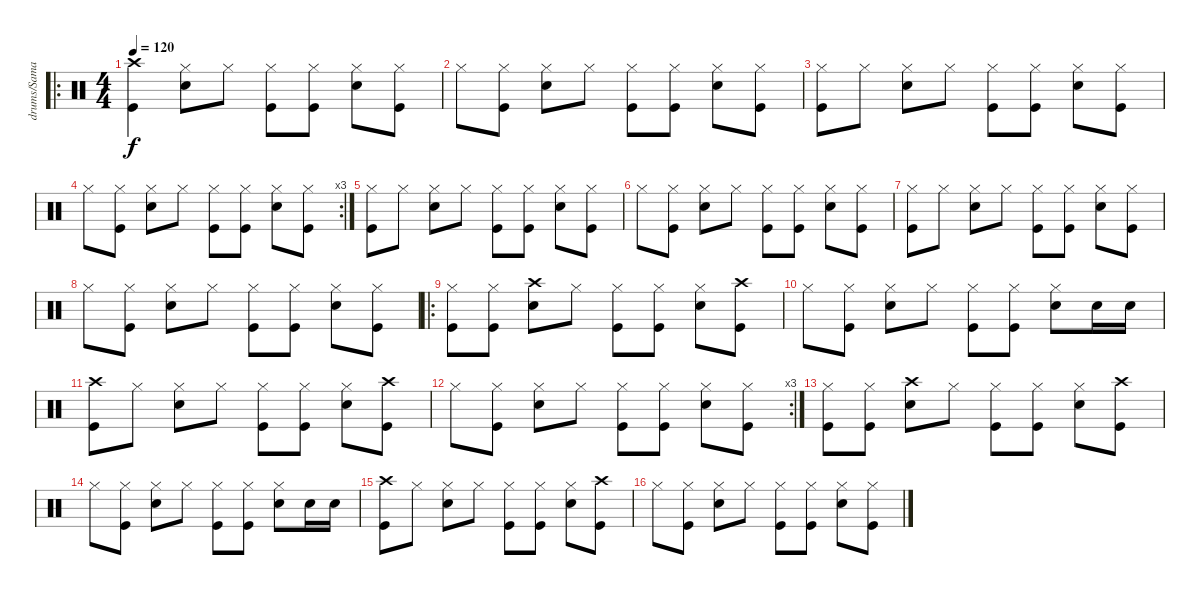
\track ("drums/Samantha" "drums/Sama") {instrument percussion}
\staff {score}
\articulation defaults
\ro
\ts (4 4)
\tempo 120
\clef neutral
\ks c
("Crash high (hit)" "Kick (hit)").4{dy f} ("Hi-Hat (closed)" "Snare (hit) 2").8 "Hi-Hat (closed)".8 ("Hi-Hat (closed)" "Kick (hit)").8 ("Hi-Hat (closed)" "Kick (hit)").8 ("Hi-Hat (closed)" "Snare (hit) 2").8 ("Hi-Hat (closed)" "Kick (hit)").8 |
"Hi-Hat (closed)".8 ("Hi-Hat (closed)" "Kick (hit)").8 ("Hi-Hat (closed)" "Snare (hit) 2").8 "Hi-Hat (closed)".8 ("Hi-Hat (closed)" "Kick (hit)").8 ("Hi-Hat (closed)" "Kick (hit)").8 ("Hi-Hat (closed)" "Snare (hit) 2").8 ("Hi-Hat (closed)" "Kick (hit)").8 |
("Hi-Hat (closed)" "Kick (hit)").8 "Hi-Hat (closed)".8 ("Hi-Hat (closed)" "Snare (hit) 2").8 "Hi-Hat (closed)".8 ("Hi-Hat (closed)" "Kick (hit)").8 ("Hi-Hat (closed)" "Kick (hit)").8 ("Hi-Hat (closed)" "Snare (hit) 2").8 ("Hi-Hat (closed)" "Kick (hit)").8 |
\rc 3 "Hi-Hat (closed)".8
("Hi-Hat (closed)" "Kick (hit)").8 ("Hi-Hat (closed)" "Snare (hit) 2").8 "Hi-Hat (closed)".8 ("Hi-Hat (closed)" "Kick (hit)").8 ("Hi-Hat (closed)" "Kick (hit)").8 ("Hi-Hat (closed)" "Snare (hit) 2").8 ("Hi-Hat (closed)" "Kick (hit)").8 |
("Hi-Hat (closed)" "Kick (hit)").8 "Hi-Hat (closed)".8 ("Hi-Hat (closed)" "Snare (hit) 2").8 "Hi-Hat (closed)".8 ("Hi-Hat (closed)" "Kick (hit)").8 ("Hi-Hat (closed)" "Kick (hit)").8 ("Hi-Hat (closed)" "Snare (hit) 2").8 ("Hi-Hat (closed)" "Kick (hit)").8 |
"Hi-Hat (closed)".8 ("Hi-Hat (closed)" "Kick (hit)").8 ("Hi-Hat (closed)" "Snare (hit) 2").8 "Hi-Hat (closed)".8 ("Hi-Hat (closed)" "Kick (hit)").8 ("Hi-Hat (closed)" "Kick (hit)").8 ("Hi-Hat (closed)" "Snare (hit) 2").8 ("Hi-Hat (closed)" "Kick (hit)").8 |
("Hi-Hat (closed)" "Kick (hit)").8 "Hi-Hat (closed)".8 ("Hi-Hat (closed)" "Snare (hit) 2").8 "Hi-Hat (closed)".8 ("Hi-Hat (closed)" "Kick (hit)").8 ("Hi-Hat (closed)" "Kick (hit)").8 ("Hi-Hat (closed)" "Snare (hit) 2").8 ("Hi-Hat (closed)" "Kick (hit)").8 |
"Hi-Hat (closed)".8 ("Hi-Hat (closed)" "Kick (hit)").8 ("Hi-Hat (closed)" "Snare (hit) 2").8 "Hi-Hat (closed)".8 ("Hi-Hat (closed)" "Kick (hit)").8 ("Hi-Hat (closed)" "Kick (hit)").8 ("Hi-Hat (closed)" "Snare (hit) 2").8 ("Hi-Hat (closed)" "Kick (hit)").8 |
\ro
("Hi-Hat (closed)" "Kick (hit)").8 ("Hi-Hat (closed)" "Kick (hit)").8 ("Crash high (hit)" "Snare (hit) 2").8 "Hi-Hat (closed)".8 ("Hi-Hat (closed)" "Kick (hit)").8 ("Hi-Hat (closed)" "Kick (hit)").8 ("Hi-Hat (closed)" "Snare (hit) 2").8 ("Crash high (hit)" "Kick (hit)").8 |
"Hi-Hat (closed)".8 ("Hi-Hat (closed)" "Kick (hit)").8 ("Hi-Hat (closed)" "Snare (hit) 2").8 "Hi-Hat (closed)".8 ("Hi-Hat (closed)" "Kick (hit)").8 ("Hi-Hat (closed)" "Kick (hit)").8 ("Hi-Hat (closed)" "Snare (hit) 2").8 "Snare (hit) 2".16 "Snare (hit) 2".16 |
("Crash high (hit)" "Kick (hit)").8 "Hi-Hat (closed)".8 ("Hi-Hat (closed)" "Snare (hit) 2").8 "Hi-Hat (closed)".8 ("Hi-Hat (closed)" "Kick (hit)").8 ("Hi-Hat (closed)" "Kick (hit)").8 ("Hi-Hat (closed)" "Snare (hit) 2").8 ("Crash high (hit)" "Kick (hit)").8 |
\rc 3 "Hi-Hat (closed)".8
("Hi-Hat (closed)" "Kick (hit)").8 ("Hi-Hat (closed)" "Snare (hit) 2").8 "Hi-Hat (closed)".8 ("Hi-Hat (closed)" "Kick (hit)").8 ("Hi-Hat (closed)" "Kick (hit)").8 ("Hi-Hat (closed)" "Snare (hit) 2").8 ("Hi-Hat (closed)" "Kick (hit)").8 |
("Hi-Hat (closed)" "Kick (hit)").8 ("Hi-Hat (closed)" "Kick (hit)").8 ("Crash high (hit)" "Snare (hit) 2").8 "Hi-Hat (closed)".8 ("Hi-Hat (closed)" "Kick (hit)").8 ("Hi-Hat (closed)" "Kick (hit)").8 ("Hi-Hat (closed)" "Snare (hit) 2").8 ("Crash high (hit)" "Kick (hit)").8 |
"Hi-Hat (closed)".8 ("Hi-Hat (closed)" "Kick (hit)").8 ("Hi-Hat (closed)" "Snare (hit) 2").8 "Hi-Hat (closed)".8 ("Hi-Hat (closed)" "Kick (hit)").8 ("Hi-Hat (closed)" "Kick (hit)").8 ("Hi-Hat (closed)" "Snare (hit) 2").8 "Snare (hit) 2".16 "Snare (hit) 2".16 |
("Crash high (hit)" "Kick (hit)").8 "Hi-Hat (closed)".8 ("Hi-Hat (closed)" "Snare (hit) 2").8 "Hi-Hat (closed)".8 ("Hi-Hat (closed)" "Kick (hit)").8 ("Hi-Hat (closed)" "Kick (hit)").8 ("Hi-Hat (closed)" "Snare (hit) 2").8 ("Crash high (hit)" "Kick (hit)").8 |
"Hi-Hat (closed)".8 ("Hi-Hat (closed)" "Kick (hit)").8 ("Hi-Hat (closed)" "Snare (hit) 2").8 "Hi-Hat (closed)".8 ("Hi-Hat (closed)" "Kick (hit)").8 ("Hi-Hat (closed)" "Kick (hit)").8 ("Hi-Hat (closed)" "Snare (hit) 2").8 ("Hi-Hat (closed)" "Kick (hit)").8
